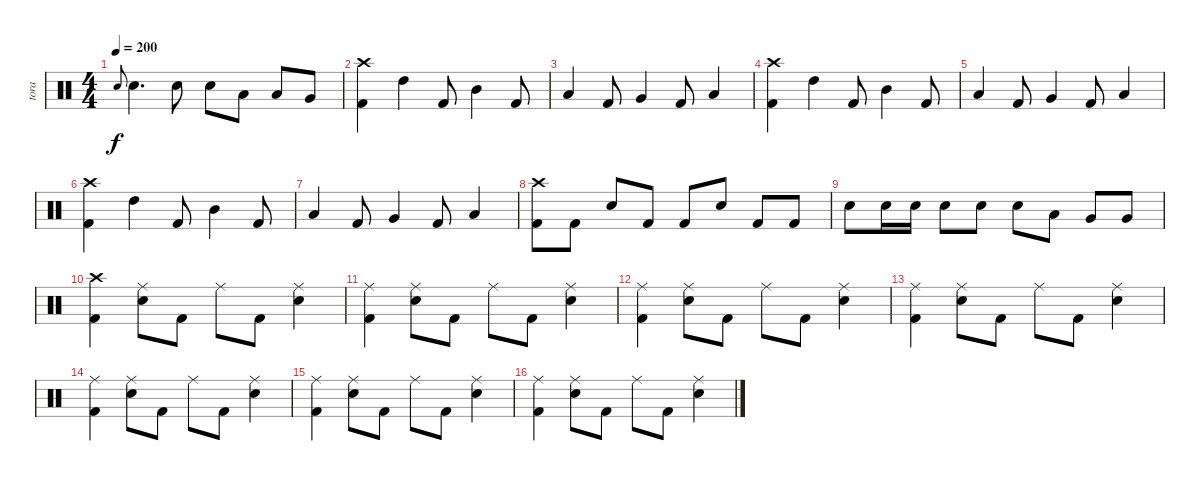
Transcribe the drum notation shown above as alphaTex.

\track ("tora" "tora") {instrument percussion}
\staff {score}
\articulation defaults
\ts (4 4)
\tempo 200
\clef neutral
\ks c "Snare (hit) 2".8{gr onbeat dy f} "Snare (hit) 2".4{d} "Snare (hit) 2".8 "Snare (hit) 2".8 "Low Tom (hit)".8 "Low Tom (hit)".8 "Very Low Tom (hit)".8
|
("Crash high (hit)" "Kick (hit) 2").4 "High Tom (hit)".4 "Kick (hit) 2".8 "Mid Tom (hit)".4 "Kick (hit) 2".8 |
"Low Tom (hit)".4 "Kick (hit) 2".8 "Very Low Tom (hit)".4 "Kick (hit) 2".8 "Low Floor Tom (hit)".4 |
("Crash high (hit)" "Kick (hit) 2").4 "High Tom (hit)".4 "Kick (hit) 2".8 "Mid Tom (hit)".4 "Kick (hit) 2".8 |
"Low Tom (hit)".4 "Kick (hit) 2".8 "Very Low Tom (hit)".4 "Kick (hit) 2".8 "Low Floor Tom (hit)".4 |
("Crash high (hit)" "Kick (hit) 2").4 "High Tom (hit)".4 "Kick (hit) 2".8 "Mid Tom (hit)".4 "Kick (hit) 2".8 |
"Low Tom (hit)".4 "Kick (hit) 2".8 "Very Low Tom (hit)".4 "Kick (hit) 2".8 "Low Floor Tom (hit)".4 |
("Crash high (hit)" "Kick (hit) 2").8 "Kick (hit) 2".8 "Snare (hit) 2".8 "Kick (hit) 2".8 "Kick (hit) 2".8 "Snare (hit) 2".8 "Kick (hit) 2".8 "Kick (hit) 2".8 |
"Snare (hit) 2".8 "Snare (hit) 2".16 "Snare (hit) 2".16 "Snare (hit) 2".8 "Snare (hit) 2".8 "Snare (hit) 2".8 "Low Tom (hit)".8 "Very Low Tom (hit)".8 "Very Low Tom (hit)".8 |
("Crash high (hit)" "Kick (hit) 2").4 ("Ride (middle)" "Snare (hit) 2").8 "Kick (hit) 2".8 "Ride (middle)".8 "Kick (hit) 2".8 ("Ride (middle)" "Snare (hit) 2").4 |
("Ride (middle)" "Kick (hit) 2").4 ("Ride (middle)" "Snare (hit) 2").8 "Kick (hit) 2".8 "Ride (middle)".8 "Kick (hit) 2".8 ("Ride (middle)" "Snare (hit) 2").4 |
("Ride (middle)" "Kick (hit) 2").4 ("Ride (middle)" "Snare (hit) 2").8 "Kick (hit) 2".8 "Ride (middle)".8 "Kick (hit) 2".8 ("Ride (middle)" "Snare (hit) 2").4 |
("Ride (middle)" "Kick (hit) 2").4 ("Ride (middle)" "Snare (hit) 2").8 "Kick (hit) 2".8 "Ride (middle)".8 "Kick (hit) 2".8 ("Ride (middle)" "Snare (hit) 2").4 |
("Ride (middle)" "Kick (hit) 2").4 ("Ride (middle)" "Snare (hit) 2").8 "Kick (hit) 2".8 "Ride (middle)".8 "Kick (hit) 2".8 ("Ride (middle)" "Snare (hit) 2").4 |
("Ride (middle)" "Kick (hit) 2").4 ("Ride (middle)" "Snare (hit) 2").8 "Kick (hit) 2".8 "Ride (middle)".8 "Kick (hit) 2".8 ("Ride (middle)" "Snare (hit) 2").4 |
("Ride (middle)" "Kick (hit) 2").4 ("Ride (middle)" "Snare (hit) 2").8 "Kick (hit) 2".8 "Ride (middle)".8 "Kick (hit) 2".8 ("Ride (middle)" "Snare (hit) 2").4
